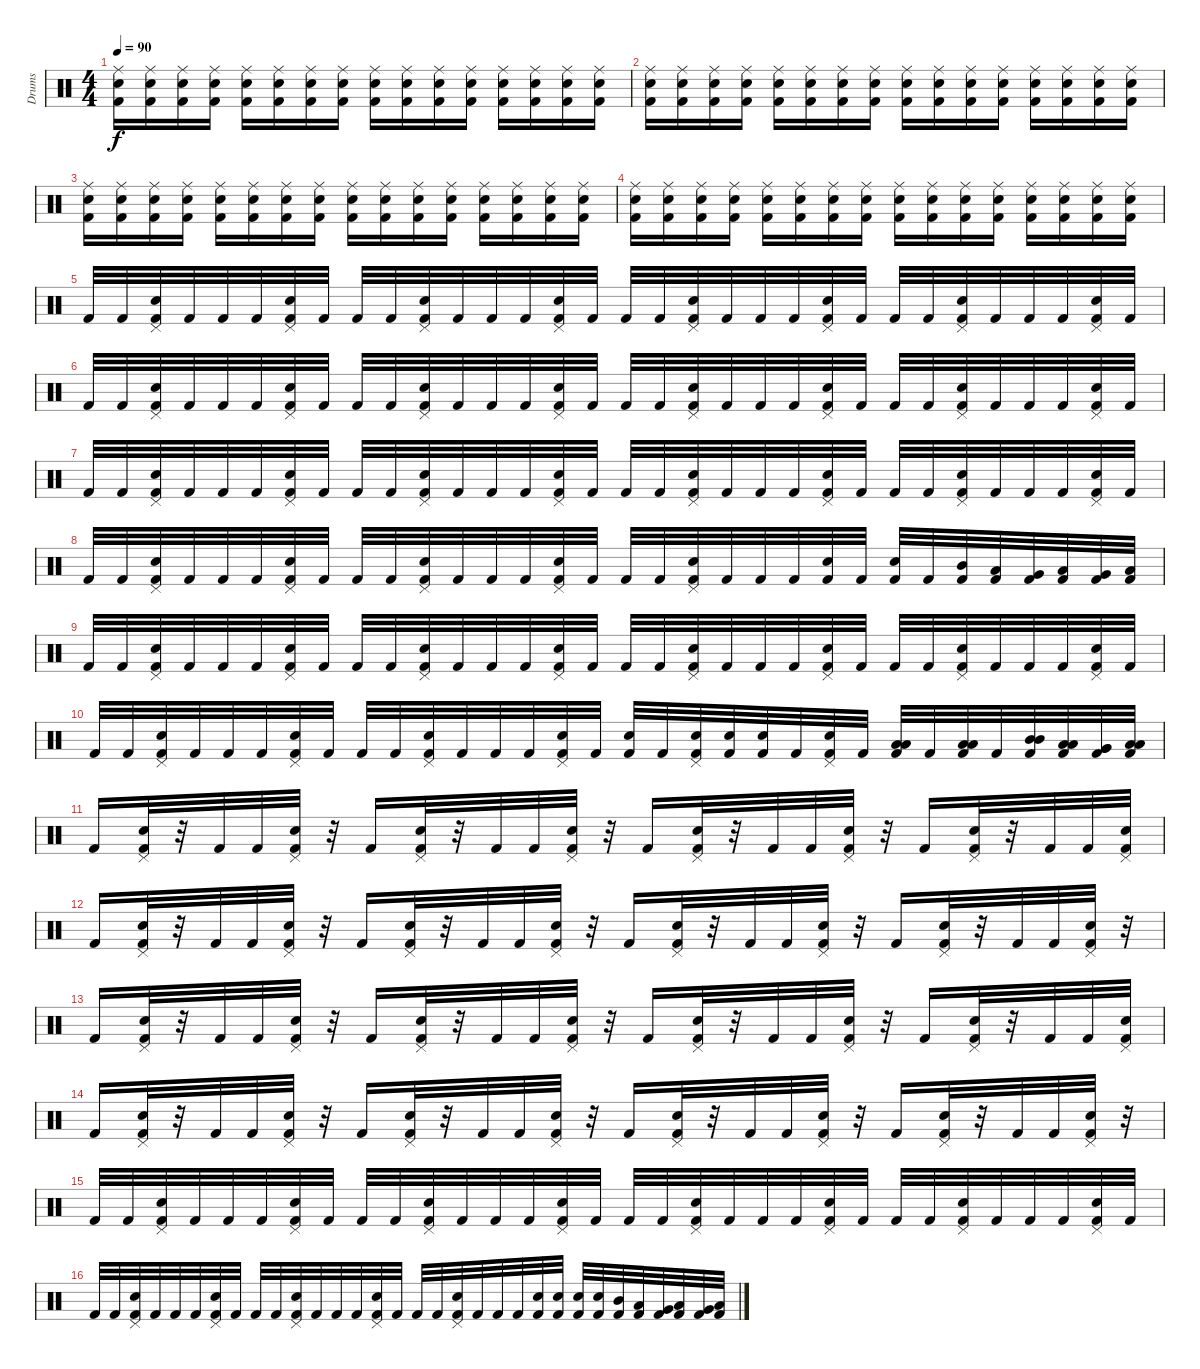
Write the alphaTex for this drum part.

\track ("Drums" "Drums") {instrument percussion}
\staff {score}
\articulation defaults
\ts (4 4)
\tempo 90
\clef neutral
\ks c
("Ride (middle)" "Snare (hit) 2" "Kick (hit) 2").16{dy f} ("Ride (middle)" "Snare (hit) 2" "Kick (hit) 2").16 ("Ride (middle)" "Snare (hit) 2" "Kick (hit) 2").16 ("Ride (middle)" "Snare (hit) 2" "Kick (hit) 2").16 ("Ride (middle)" "Snare (hit) 2" "Kick (hit) 2").16 ("Ride (middle)" "Snare (hit) 2" "Kick (hit) 2").16 ("Ride (middle)" "Snare (hit) 2" "Kick (hit) 2").16 ("Ride (middle)" "Snare (hit) 2" "Kick (hit) 2").16 ("Ride (middle)" "Snare (hit) 2" "Kick (hit) 2").16 ("Ride (middle)" "Snare (hit) 2" "Kick (hit) 2").16 ("Ride (middle)" "Snare (hit) 2" "Kick (hit) 2").16 ("Ride (middle)" "Snare (hit) 2" "Kick (hit) 2").16 ("Ride (middle)" "Snare (hit) 2" "Kick (hit) 2").16 ("Ride (middle)" "Snare (hit) 2" "Kick (hit) 2").16 ("Ride (middle)" "Snare (hit) 2" "Kick (hit) 2").16 ("Ride (middle)" "Snare (hit) 2" "Kick (hit) 2").16 |
("Ride (middle)" "Snare (hit) 2" "Kick (hit) 2").16 ("Ride (middle)" "Snare (hit) 2" "Kick (hit) 2").16 ("Ride (middle)" "Snare (hit) 2" "Kick (hit) 2").16 ("Ride (middle)" "Snare (hit) 2" "Kick (hit) 2").16 ("Ride (middle)" "Snare (hit) 2" "Kick (hit) 2").16 ("Ride (middle)" "Snare (hit) 2" "Kick (hit) 2").16 ("Ride (middle)" "Snare (hit) 2" "Kick (hit) 2").16 ("Ride (middle)" "Snare (hit) 2" "Kick (hit) 2").16 ("Ride (middle)" "Snare (hit) 2" "Kick (hit) 2").16 ("Ride (middle)" "Snare (hit) 2" "Kick (hit) 2").16 ("Ride (middle)" "Snare (hit) 2" "Kick (hit) 2").16 ("Ride (middle)" "Snare (hit) 2" "Kick (hit) 2").16 ("Ride (middle)" "Snare (hit) 2" "Kick (hit) 2").16 ("Ride (middle)" "Snare (hit) 2" "Kick (hit) 2").16 ("Ride (middle)" "Snare (hit) 2" "Kick (hit) 2").16 ("Ride (middle)" "Snare (hit) 2" "Kick (hit) 2").16 |
("Ride (middle)" "Snare (hit) 2" "Kick (hit) 2").16 ("Ride (middle)" "Snare (hit) 2" "Kick (hit) 2").16 ("Ride (middle)" "Snare (hit) 2" "Kick (hit) 2").16 ("Ride (middle)" "Snare (hit) 2" "Kick (hit) 2").16 ("Ride (middle)" "Snare (hit) 2" "Kick (hit) 2").16 ("Ride (middle)" "Snare (hit) 2" "Kick (hit) 2").16 ("Ride (middle)" "Snare (hit) 2" "Kick (hit) 2").16 ("Ride (middle)" "Snare (hit) 2" "Kick (hit) 2").16 ("Ride (middle)" "Snare (hit) 2" "Kick (hit) 2").16 ("Ride (middle)" "Snare (hit) 2" "Kick (hit) 2").16 ("Ride (middle)" "Snare (hit) 2" "Kick (hit) 2").16 ("Ride (middle)" "Snare (hit) 2" "Kick (hit) 2").16 ("Ride (middle)" "Snare (hit) 2" "Kick (hit) 2").16 ("Ride (middle)" "Snare (hit) 2" "Kick (hit) 2").16 ("Ride (middle)" "Snare (hit) 2" "Kick (hit) 2").16 ("Ride (middle)" "Snare (hit) 2" "Kick (hit) 2").16 |
("Ride (middle)" "Snare (hit) 2" "Kick (hit) 2").16 ("Ride (middle)" "Snare (hit) 2" "Kick (hit) 2").16 ("Ride (middle)" "Snare (hit) 2" "Kick (hit) 2").16 ("Ride (middle)" "Snare (hit) 2" "Kick (hit) 2").16 ("Ride (middle)" "Snare (hit) 2" "Kick (hit) 2").16 ("Ride (middle)" "Snare (hit) 2" "Kick (hit) 2").16 ("Ride (middle)" "Snare (hit) 2" "Kick (hit) 2").16 ("Ride (middle)" "Snare (hit) 2" "Kick (hit) 2").16 ("Ride (middle)" "Snare (hit) 2" "Kick (hit) 2").16 ("Ride (middle)" "Snare (hit) 2" "Kick (hit) 2").16 ("Ride (middle)" "Snare (hit) 2" "Kick (hit) 2").16 ("Ride (middle)" "Snare (hit) 2" "Kick (hit) 2").16 ("Ride (middle)" "Snare (hit) 2" "Kick (hit) 2").16 ("Ride (middle)" "Snare (hit) 2" "Kick (hit) 2").16 ("Ride (middle)" "Snare (hit) 2" "Kick (hit) 2").16 ("Ride (middle)" "Snare (hit) 2" "Kick (hit) 2").16 |
"Kick (hit) 2".32 "Kick (hit) 2".32 ("Pedal Hi-Hat (hit)" "Snare (hit) 2" "Kick (hit) 2").32 "Kick (hit) 2".32 "Kick (hit) 2".32 "Kick (hit) 2".32 ("Pedal Hi-Hat (hit)" "Snare (hit) 2" "Kick (hit) 2").32 "Kick (hit) 2".32 "Kick (hit) 2".32 "Kick (hit) 2".32 ("Pedal Hi-Hat (hit)" "Snare (hit) 2" "Kick (hit) 2").32 "Kick (hit) 2".32 "Kick (hit) 2".32 "Kick (hit) 2".32 ("Pedal Hi-Hat (hit)" "Snare (hit) 2" "Kick (hit) 2").32 "Kick (hit) 2".32 "Kick (hit) 2".32 "Kick (hit) 2".32 ("Pedal Hi-Hat (hit)" "Snare (hit) 2" "Kick (hit) 2").32 "Kick (hit) 2".32 "Kick (hit) 2".32 "Kick (hit) 2".32 ("Pedal Hi-Hat (hit)" "Snare (hit) 2" "Kick (hit) 2").32 "Kick (hit) 2".32 "Kick (hit) 2".32 "Kick (hit) 2".32 ("Pedal Hi-Hat (hit)" "Snare (hit) 2" "Kick (hit) 2").32 "Kick (hit) 2".32 "Kick (hit) 2".32 "Kick (hit) 2".32 ("Pedal Hi-Hat (hit)" "Snare (hit) 2" "Kick (hit) 2").32 "Kick (hit) 2".32 |
"Kick (hit) 2".32 "Kick (hit) 2".32 ("Pedal Hi-Hat (hit)" "Snare (hit) 2" "Kick (hit) 2").32 "Kick (hit) 2".32 "Kick (hit) 2".32 "Kick (hit) 2".32 ("Pedal Hi-Hat (hit)" "Snare (hit) 2" "Kick (hit) 2").32 "Kick (hit) 2".32 "Kick (hit) 2".32 "Kick (hit) 2".32 ("Pedal Hi-Hat (hit)" "Snare (hit) 2" "Kick (hit) 2").32 "Kick (hit) 2".32 "Kick (hit) 2".32 "Kick (hit) 2".32 ("Pedal Hi-Hat (hit)" "Snare (hit) 2" "Kick (hit) 2").32 "Kick (hit) 2".32 "Kick (hit) 2".32 "Kick (hit) 2".32 ("Pedal Hi-Hat (hit)" "Snare (hit) 2" "Kick (hit) 2").32 "Kick (hit) 2".32 "Kick (hit) 2".32 "Kick (hit) 2".32 ("Pedal Hi-Hat (hit)" "Snare (hit) 2" "Kick (hit) 2").32 "Kick (hit) 2".32 "Kick (hit) 2".32 "Kick (hit) 2".32 ("Pedal Hi-Hat (hit)" "Snare (hit) 2" "Kick (hit) 2").32 "Kick (hit) 2".32 "Kick (hit) 2".32 "Kick (hit) 2".32 ("Pedal Hi-Hat (hit)" "Snare (hit) 2" "Kick (hit) 2").32 "Kick (hit) 2".32 |
"Kick (hit) 2".32 "Kick (hit) 2".32 ("Pedal Hi-Hat (hit)" "Snare (hit) 2" "Kick (hit) 2").32 "Kick (hit) 2".32 "Kick (hit) 2".32 "Kick (hit) 2".32 ("Pedal Hi-Hat (hit)" "Snare (hit) 2" "Kick (hit) 2").32 "Kick (hit) 2".32 "Kick (hit) 2".32 "Kick (hit) 2".32 ("Pedal Hi-Hat (hit)" "Snare (hit) 2" "Kick (hit) 2").32 "Kick (hit) 2".32 "Kick (hit) 2".32 "Kick (hit) 2".32 ("Pedal Hi-Hat (hit)" "Snare (hit) 2" "Kick (hit) 2").32 "Kick (hit) 2".32 "Kick (hit) 2".32 "Kick (hit) 2".32 ("Pedal Hi-Hat (hit)" "Snare (hit) 2" "Kick (hit) 2").32 "Kick (hit) 2".32 "Kick (hit) 2".32 "Kick (hit) 2".32 ("Pedal Hi-Hat (hit)" "Snare (hit) 2" "Kick (hit) 2").32 "Kick (hit) 2".32 "Kick (hit) 2".32 "Kick (hit) 2".32 ("Pedal Hi-Hat (hit)" "Snare (hit) 2" "Kick (hit) 2").32 "Kick (hit) 2".32 "Kick (hit) 2".32 "Kick (hit) 2".32 ("Pedal Hi-Hat (hit)" "Snare (hit) 2" "Kick (hit) 2").32 "Kick (hit) 2".32 |
"Kick (hit) 2".32 "Kick (hit) 2".32 ("Pedal Hi-Hat (hit)" "Snare (hit) 2" "Kick (hit) 2").32 "Kick (hit) 2".32 "Kick (hit) 2".32 "Kick (hit) 2".32 ("Pedal Hi-Hat (hit)" "Snare (hit) 2" "Kick (hit) 2").32 "Kick (hit) 2".32 "Kick (hit) 2".32 "Kick (hit) 2".32 ("Pedal Hi-Hat (hit)" "Snare (hit) 2" "Kick (hit) 2").32 "Kick (hit) 2".32 "Kick (hit) 2".32 "Kick (hit) 2".32 ("Pedal Hi-Hat (hit)" "Snare (hit) 2" "Kick (hit) 2").32 "Kick (hit) 2".32 "Kick (hit) 2".32 "Kick (hit) 2".32 ("Pedal Hi-Hat (hit)" "Snare (hit) 2" "Kick (hit) 2").32 "Kick (hit) 2".32 "Kick (hit) 2".32 "Kick (hit) 2".32 ("Snare (hit) 2" "Kick (hit) 2").32 "Kick (hit) 2".32 ("Snare (hit) 2" "Kick (hit) 2").32 "Kick (hit) 2".32 ("Mid Tom (hit)" "Kick (hit) 2").32 ("Low Tom (hit)" "Kick (hit) 2").32 ("Very Low Tom (hit)" "Kick (hit) 2").32 ("Low Tom (hit)" "Kick (hit) 2").32 ("Very Low Tom (hit)" "Kick (hit) 2").32 ("Low Floor Tom (hit)" "Kick (hit) 2").32 |
"Kick (hit) 2".32 "Kick (hit) 2".32 ("Pedal Hi-Hat (hit)" "Snare (hit) 2" "Kick (hit) 2").32 "Kick (hit) 2".32 "Kick (hit) 2".32 "Kick (hit) 2".32 ("Pedal Hi-Hat (hit)" "Snare (hit) 2" "Kick (hit) 2").32 "Kick (hit) 2".32 "Kick (hit) 2".32 "Kick (hit) 2".32 ("Pedal Hi-Hat (hit)" "Snare (hit) 2" "Kick (hit) 2").32 "Kick (hit) 2".32 "Kick (hit) 2".32 "Kick (hit) 2".32 ("Pedal Hi-Hat (hit)" "Snare (hit) 2" "Kick (hit) 2").32 "Kick (hit) 2".32 "Kick (hit) 2".32 "Kick (hit) 2".32 ("Pedal Hi-Hat (hit)" "Snare (hit) 2" "Kick (hit) 2").32 "Kick (hit) 2".32 "Kick (hit) 2".32 "Kick (hit) 2".32 ("Pedal Hi-Hat (hit)" "Snare (hit) 2" "Kick (hit) 2").32 "Kick (hit) 2".32 "Kick (hit) 2".32 "Kick (hit) 2".32 ("Pedal Hi-Hat (hit)" "Snare (hit) 2" "Kick (hit) 2").32 "Kick (hit) 2".32 "Kick (hit) 2".32 "Kick (hit) 2".32 ("Pedal Hi-Hat (hit)" "Snare (hit) 2" "Kick (hit) 2").32 "Kick (hit) 2".32 |
"Kick (hit) 2".32 "Kick (hit) 2".32 ("Pedal Hi-Hat (hit)" "Snare (hit) 2" "Kick (hit) 2").32 "Kick (hit) 2".32 "Kick (hit) 2".32 "Kick (hit) 2".32 ("Pedal Hi-Hat (hit)" "Snare (hit) 2" "Kick (hit) 2").32 "Kick (hit) 2".32 "Kick (hit) 2".32 "Kick (hit) 2".32 ("Pedal Hi-Hat (hit)" "Snare (hit) 2" "Kick (hit) 2").32 "Kick (hit) 2".32 "Kick (hit) 2".32 "Kick (hit) 2".32 ("Pedal Hi-Hat (hit)" "Snare (hit) 2" "Kick (hit) 2").32 "Kick (hit) 2".32 ("Snare (hit) 2" "Kick (hit) 2").32 "Kick (hit) 2".32 ("Pedal Hi-Hat (hit)" "Snare (hit) 2" "Kick (hit) 2").32 ("Snare (hit) 2" "Kick (hit) 2").32 ("Snare (hit) 2" "Kick (hit) 2").32 "Kick (hit) 2".32 ("Pedal Hi-Hat (hit)" "Snare (hit) 2" "Kick (hit) 2").32 "Kick (hit) 2".32 ("Low Tom (hit)" "Low Tom (hit)" "Kick (hit) 2").32 "Kick (hit) 2".32 ("Low Tom (hit)" "Low Tom (hit)" "Kick (hit) 2").32 "Kick (hit) 2".32 ("Mid Tom (hit)" "Mid Tom (hit)" "Kick (hit) 2").32 ("Low Tom (hit)" "Low Tom (hit)" "Kick (hit) 2").32 ("Very Low Tom (hit)" "Very Low Tom (hit)" "Kick (hit) 2").32 ("Low Floor Tom (hit)" "Low Floor Tom (hit)" "Kick (hit) 2").32 |
"Kick (hit) 2".16 ("Pedal Hi-Hat (hit)" "Snare (hit) 2" "Kick (hit) 2").32 r.32 "Kick (hit) 2".32 "Kick (hit) 2".32 ("Pedal Hi-Hat (hit)" "Snare (hit) 2" "Kick (hit) 2").32 r.32 "Kick (hit) 2".16 ("Pedal Hi-Hat (hit)" "Snare (hit) 2" "Kick (hit) 2").32 r.32 "Kick (hit) 2".32 "Kick (hit) 2".32 ("Pedal Hi-Hat (hit)" "Snare (hit) 2" "Kick (hit) 2").32 r.32 "Kick (hit) 2".16 ("Pedal Hi-Hat (hit)" "Snare (hit) 2" "Kick (hit) 2").32 r.32 "Kick (hit) 2".32 "Kick (hit) 2".32 ("Pedal Hi-Hat (hit)" "Snare (hit) 2" "Kick (hit) 2").32 r.32 "Kick (hit) 2".16 ("Pedal Hi-Hat (hit)" "Snare (hit) 2" "Kick (hit) 2").32 r.32 "Kick (hit) 2".32 "Kick (hit) 2".32 ("Pedal Hi-Hat (hit)" "Snare (hit) 2" "Kick (hit) 2").32 |
"Kick (hit) 2".16 ("Pedal Hi-Hat (hit)" "Snare (hit) 2" "Kick (hit) 2").32 r.32 "Kick (hit) 2".32 "Kick (hit) 2".32 ("Pedal Hi-Hat (hit)" "Snare (hit) 2" "Kick (hit) 2").32 r.32 "Kick (hit) 2".16 ("Pedal Hi-Hat (hit)" "Snare (hit) 2" "Kick (hit) 2").32 r.32 "Kick (hit) 2".32 "Kick (hit) 2".32 ("Pedal Hi-Hat (hit)" "Snare (hit) 2" "Kick (hit) 2").32 r.32 "Kick (hit) 2".16 ("Pedal Hi-Hat (hit)" "Snare (hit) 2" "Kick (hit) 2").32 r.32 "Kick (hit) 2".32 "Kick (hit) 2".32 ("Pedal Hi-Hat (hit)" "Snare (hit) 2" "Kick (hit) 2").32 r.32 "Kick (hit) 2".16 ("Pedal Hi-Hat (hit)" "Snare (hit) 2" "Kick (hit) 2").32 r.32 "Kick (hit) 2".32 "Kick (hit) 2".32 ("Pedal Hi-Hat (hit)" "Snare (hit) 2" "Kick (hit) 2").32 r.32 |
"Kick (hit) 2".16 ("Pedal Hi-Hat (hit)" "Snare (hit) 2" "Kick (hit) 2").32 r.32 "Kick (hit) 2".32 "Kick (hit) 2".32 ("Pedal Hi-Hat (hit)" "Snare (hit) 2" "Kick (hit) 2").32 r.32 "Kick (hit) 2".16 ("Pedal Hi-Hat (hit)" "Snare (hit) 2" "Kick (hit) 2").32 r.32 "Kick (hit) 2".32 "Kick (hit) 2".32 ("Pedal Hi-Hat (hit)" "Snare (hit) 2" "Kick (hit) 2").32 r.32 "Kick (hit) 2".16 ("Pedal Hi-Hat (hit)" "Snare (hit) 2" "Kick (hit) 2").32 r.32 "Kick (hit) 2".32 "Kick (hit) 2".32 ("Pedal Hi-Hat (hit)" "Snare (hit) 2" "Kick (hit) 2").32 r.32 "Kick (hit) 2".16 ("Pedal Hi-Hat (hit)" "Snare (hit) 2" "Kick (hit) 2").32 r.32 "Kick (hit) 2".32 "Kick (hit) 2".32 ("Pedal Hi-Hat (hit)" "Snare (hit) 2" "Kick (hit) 2").32 |
"Kick (hit) 2".16 ("Pedal Hi-Hat (hit)" "Snare (hit) 2" "Kick (hit) 2").32 r.32 "Kick (hit) 2".32 "Kick (hit) 2".32 ("Pedal Hi-Hat (hit)" "Snare (hit) 2" "Kick (hit) 2").32 r.32 "Kick (hit) 2".16 ("Pedal Hi-Hat (hit)" "Snare (hit) 2" "Kick (hit) 2").32 r.32 "Kick (hit) 2".32 "Kick (hit) 2".32 ("Pedal Hi-Hat (hit)" "Snare (hit) 2" "Kick (hit) 2").32 r.32 "Kick (hit) 2".16 ("Pedal Hi-Hat (hit)" "Snare (hit) 2" "Kick (hit) 2").32 r.32 "Kick (hit) 2".32 "Kick (hit) 2".32 ("Pedal Hi-Hat (hit)" "Snare (hit) 2" "Kick (hit) 2").32 r.32 "Kick (hit) 2".16 ("Pedal Hi-Hat (hit)" "Snare (hit) 2" "Kick (hit) 2").32 r.32 "Kick (hit) 2".32 "Kick (hit) 2".32 ("Pedal Hi-Hat (hit)" "Snare (hit) 2" "Kick (hit) 2").32 r.32 |
"Kick (hit) 2".32 "Kick (hit) 2".32 ("Pedal Hi-Hat (hit)" "Snare (hit) 2" "Kick (hit) 2").32 "Kick (hit) 2".32 "Kick (hit) 2".32 "Kick (hit) 2".32 ("Pedal Hi-Hat (hit)" "Snare (hit) 2" "Kick (hit) 2").32 "Kick (hit) 2".32 "Kick (hit) 2".32 "Kick (hit) 2".32 ("Pedal Hi-Hat (hit)" "Snare (hit) 2" "Kick (hit) 2").32 "Kick (hit) 2".32 "Kick (hit) 2".32 "Kick (hit) 2".32 ("Pedal Hi-Hat (hit)" "Snare (hit) 2" "Kick (hit) 2").32 "Kick (hit) 2".32 "Kick (hit) 2".32 "Kick (hit) 2".32 ("Pedal Hi-Hat (hit)" "Snare (hit) 2" "Kick (hit) 2").32 "Kick (hit) 2".32 "Kick (hit) 2".32 "Kick (hit) 2".32 ("Pedal Hi-Hat (hit)" "Snare (hit) 2" "Kick (hit) 2").32 "Kick (hit) 2".32 "Kick (hit) 2".32 "Kick (hit) 2".32 ("Pedal Hi-Hat (hit)" "Snare (hit) 2" "Kick (hit) 2").32 "Kick (hit) 2".32 "Kick (hit) 2".32 "Kick (hit) 2".32 ("Pedal Hi-Hat (hit)" "Snare (hit) 2" "Kick (hit) 2").32 "Kick (hit) 2".32 |
"Kick (hit) 2".32 "Kick (hit) 2".32 ("Pedal Hi-Hat (hit)" "Snare (hit) 2" "Kick (hit) 2").32 "Kick (hit) 2".32 "Kick (hit) 2".32 "Kick (hit) 2".32 ("Pedal Hi-Hat (hit)" "Snare (hit) 2" "Kick (hit) 2").32 "Kick (hit) 2".32 "Kick (hit) 2".32 "Kick (hit) 2".32 ("Pedal Hi-Hat (hit)" "Snare (hit) 2" "Kick (hit) 2").32 "Kick (hit) 2".32 "Kick (hit) 2".32 "Kick (hit) 2".32 ("Pedal Hi-Hat (hit)" "Snare (hit) 2" "Kick (hit) 2").32 "Kick (hit) 2".32 "Kick (hit) 2".32 "Kick (hit) 2".32 ("Pedal Hi-Hat (hit)" "Snare (hit) 2" "Kick (hit) 2").32 "Kick (hit) 2".32 "Kick (hit) 2".32 "Kick (hit) 2".32 ("Snare (hit) 2" "Kick (hit) 2").32 ("Snare (hit) 2" "Kick (hit) 2").32 ("Snare (hit) 2" "Kick (hit) 2").32 ("Snare (hit) 2" "Kick (hit) 2").32 ("Mid Tom (hit)" "Kick (hit) 2").32 ("Low Tom (hit)" "Kick (hit) 2").32 ("Very Low Tom (hit)" "Kick (hit) 2").32 ("Low Tom (hit)" "Kick (hit) 2").32 ("Very Low Tom (hit)" "Kick (hit) 2").32 ("Low Floor Tom (hit)" "Kick (hit) 2").32
